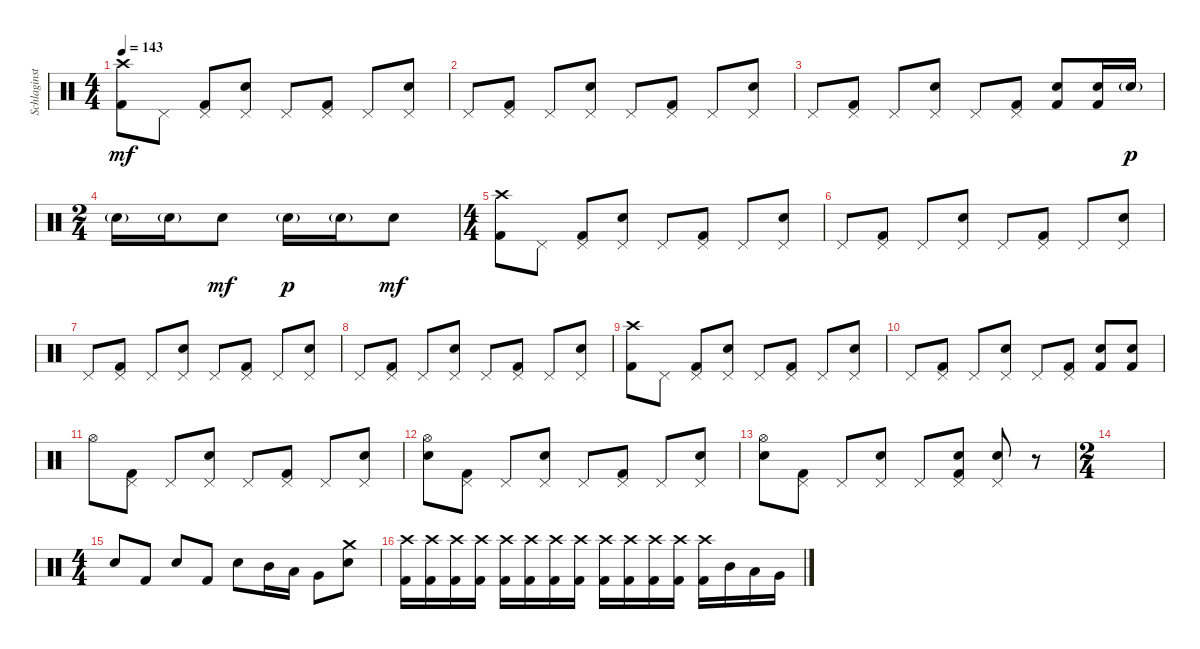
\track ("Schlaginstrumente - Auswahl" "Schlaginst") {instrument percussion}
\staff {score}
\articulation defaults
\ts (4 4)
\tempo 143
\clef neutral
\ks c
("Crash high (hit)" "Kick (hit) 2").8{dy mf} "Pedal Hi-Hat (hit)".8 ("Pedal Hi-Hat (hit)" "Kick (hit) 2").8 ("Pedal Hi-Hat (hit)" "Electric Snare (hit)").8 "Pedal Hi-Hat (hit)".8 ("Pedal Hi-Hat (hit)" "Kick (hit) 2").8 "Pedal Hi-Hat (hit)".8 ("Pedal Hi-Hat (hit)" "Electric Snare (hit)").8 |
"Pedal Hi-Hat (hit)".8 ("Pedal Hi-Hat (hit)" "Kick (hit) 2").8 "Pedal Hi-Hat (hit)".8 ("Pedal Hi-Hat (hit)" "Electric Snare (hit)").8 "Pedal Hi-Hat (hit)".8 ("Pedal Hi-Hat (hit)" "Kick (hit) 2").8 "Pedal Hi-Hat (hit)".8 ("Pedal Hi-Hat (hit)" "Electric Snare (hit)").8 |
"Pedal Hi-Hat (hit)".8 ("Pedal Hi-Hat (hit)" "Kick (hit) 2").8 "Pedal Hi-Hat (hit)".8 ("Pedal Hi-Hat (hit)" "Electric Snare (hit)").8 "Pedal Hi-Hat (hit)".8 ("Pedal Hi-Hat (hit)" "Kick (hit) 2").8 ("Electric Snare (hit)" "Kick (hit) 2").8 ("Electric Snare (hit)" "Kick (hit) 2").16 "Electric Snare (hit)"{g}.16{dy p} |
\ts (2 4)
"Electric Snare (hit)"{g}.16 "Electric Snare (hit)"{g}.16 "Electric Snare (hit)".8{dy mf} "Electric Snare (hit)"{g}.16{dy p} "Electric Snare (hit)"{g}.16 "Electric Snare (hit)".8{dy mf} |
\ts (4 4)
("Crash high (hit)" "Kick (hit) 2").8 "Pedal Hi-Hat (hit)".8 ("Pedal Hi-Hat (hit)" "Kick (hit) 2").8 ("Pedal Hi-Hat (hit)" "Electric Snare (hit)").8 "Pedal Hi-Hat (hit)".8 ("Pedal Hi-Hat (hit)" "Kick (hit) 2").8 "Pedal Hi-Hat (hit)".8 ("Pedal Hi-Hat (hit)" "Electric Snare (hit)").8 |
"Pedal Hi-Hat (hit)".8 ("Pedal Hi-Hat (hit)" "Kick (hit) 2").8 "Pedal Hi-Hat (hit)".8 ("Pedal Hi-Hat (hit)" "Electric Snare (hit)").8 "Pedal Hi-Hat (hit)".8 ("Pedal Hi-Hat (hit)" "Kick (hit) 2").8 "Pedal Hi-Hat (hit)".8 ("Pedal Hi-Hat (hit)" "Electric Snare (hit)").8 |
"Pedal Hi-Hat (hit)".8 ("Pedal Hi-Hat (hit)" "Kick (hit) 2").8 "Pedal Hi-Hat (hit)".8 ("Pedal Hi-Hat (hit)" "Electric Snare (hit)").8 "Pedal Hi-Hat (hit)".8 ("Pedal Hi-Hat (hit)" "Kick (hit) 2").8 "Pedal Hi-Hat (hit)".8 ("Pedal Hi-Hat (hit)" "Electric Snare (hit)").8 |
"Pedal Hi-Hat (hit)".8 ("Pedal Hi-Hat (hit)" "Kick (hit) 2").8 "Pedal Hi-Hat (hit)".8 ("Pedal Hi-Hat (hit)" "Electric Snare (hit)").8 "Pedal Hi-Hat (hit)".8 ("Pedal Hi-Hat (hit)" "Kick (hit) 2").8 "Pedal Hi-Hat (hit)".8 ("Pedal Hi-Hat (hit)" "Electric Snare (hit)").8 |
("Crash high (hit)" "Kick (hit) 2").8 "Pedal Hi-Hat (hit)".8 ("Pedal Hi-Hat (hit)" "Kick (hit) 2").8 ("Pedal Hi-Hat (hit)" "Electric Snare (hit)").8 "Pedal Hi-Hat (hit)".8 ("Pedal Hi-Hat (hit)" "Kick (hit) 2").8 "Pedal Hi-Hat (hit)".8 ("Pedal Hi-Hat (hit)" "Electric Snare (hit)").8 |
"Pedal Hi-Hat (hit)".8 ("Pedal Hi-Hat (hit)" "Kick (hit) 2").8 "Pedal Hi-Hat (hit)".8 ("Pedal Hi-Hat (hit)" "Electric Snare (hit)").8 "Pedal Hi-Hat (hit)".8 ("Pedal Hi-Hat (hit)" "Kick (hit) 2").8 ("Electric Snare (hit)" "Kick (hit) 2").8 ("Electric Snare (hit)" "Kick (hit) 2").8 |
"Hi-Hat (open)".8 ("Pedal Hi-Hat (hit)" "Kick (hit) 2").8 "Pedal Hi-Hat (hit)".8 ("Pedal Hi-Hat (hit)" "Electric Snare (hit)").8 "Pedal Hi-Hat (hit)".8 ("Pedal Hi-Hat (hit)" "Kick (hit) 2").8 "Pedal Hi-Hat (hit)".8 ("Pedal Hi-Hat (hit)" "Electric Snare (hit)").8 |
("Hi-Hat (open)" "Electric Snare (hit)").8 ("Pedal Hi-Hat (hit)" "Kick (hit) 2").8 "Pedal Hi-Hat (hit)".8 ("Pedal Hi-Hat (hit)" "Electric Snare (hit)").8 "Pedal Hi-Hat (hit)".8 ("Pedal Hi-Hat (hit)" "Kick (hit) 2").8 "Pedal Hi-Hat (hit)".8 ("Pedal Hi-Hat (hit)" "Electric Snare (hit)").8 |
("Hi-Hat (open)" "Electric Snare (hit)").8 ("Pedal Hi-Hat (hit)" "Kick (hit) 2").8 "Pedal Hi-Hat (hit)".8 ("Pedal Hi-Hat (hit)" "Electric Snare (hit)").8 "Pedal Hi-Hat (hit)".8 ("Pedal Hi-Hat (hit)" "Electric Snare (hit)" "Kick (hit) 2").8 ("Pedal Hi-Hat (hit)" "Electric Snare (hit)").8 r.8 |
\ts (2 4)
|
\ts (4 4)
"Electric Snare (hit)".8 "Kick (hit) 2".8 "Electric Snare (hit)".8 "Kick (hit) 2".8 "Electric Snare (hit)".8 "Mid Tom (hit)".16 "Low Tom (hit)".16 "Very Low Tom (hit)".8 ("Electric Snare (hit)" "Crash medium (hit)").8 |
("Crash high (hit)" "Kick (hit) 2").16 ("Crash high (hit)" "Kick (hit) 2").16 ("Crash high (hit)" "Kick (hit) 2").16 ("Crash high (hit)" "Kick (hit) 2").16 ("Crash high (hit)" "Kick (hit) 2").16 ("Crash high (hit)" "Kick (hit) 2").16 ("Crash high (hit)" "Kick (hit) 2").16 ("Crash high (hit)" "Kick (hit) 2").16 ("Crash high (hit)" "Kick (hit) 2").16 ("Crash high (hit)" "Kick (hit) 2").16 ("Crash high (hit)" "Kick (hit) 2").16 ("Crash high (hit)" "Kick (hit) 2").16 ("Crash high (hit)" "Kick (hit) 2").16 "Mid Tom (hit)".16 "Low Tom (hit)".16 "Very Low Tom (hit)".16
